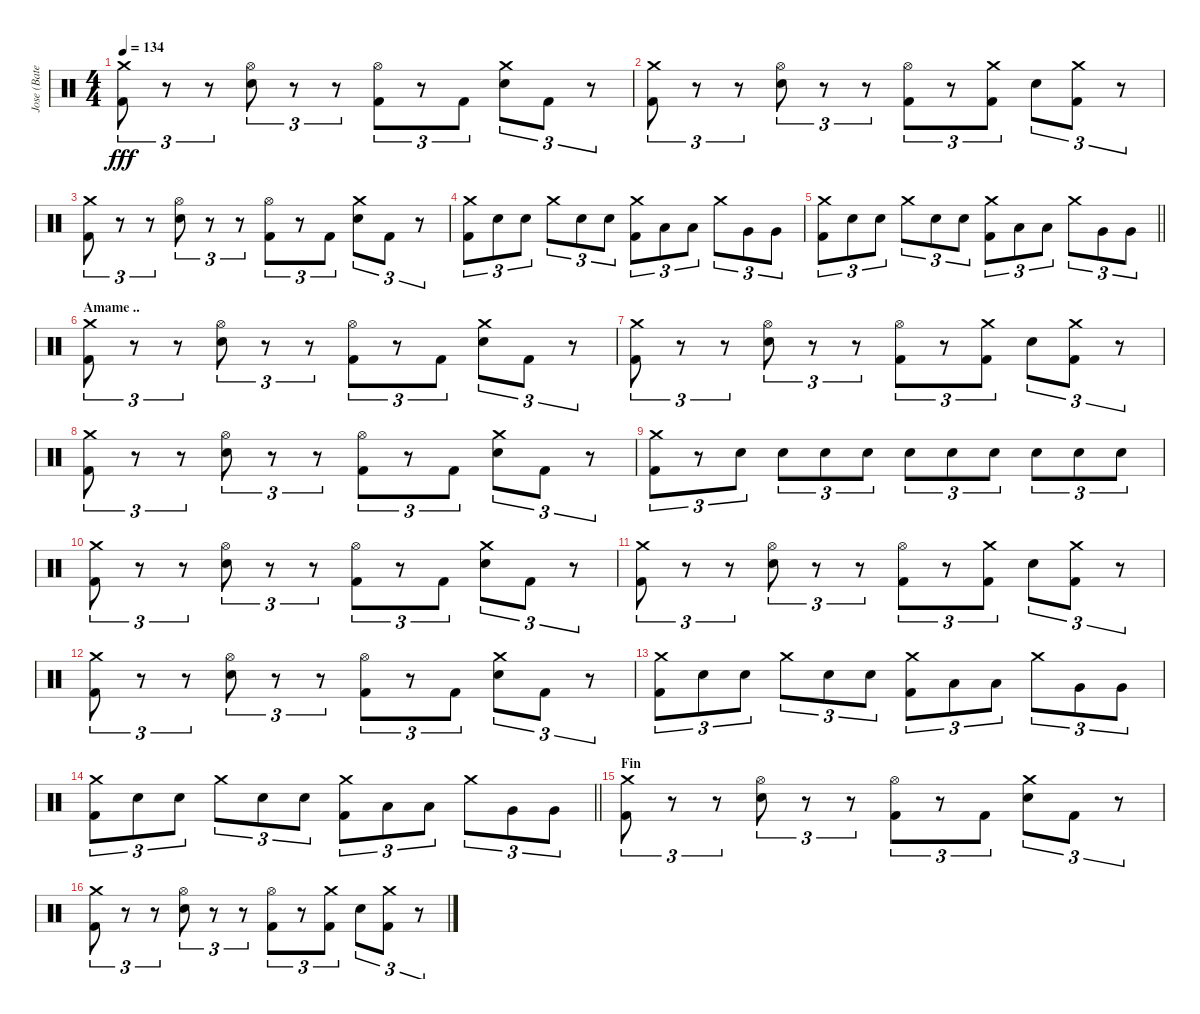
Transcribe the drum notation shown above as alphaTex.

\track ("Jose (Bateria)" "Jose (Bate") {instrument percussion}
\staff {score}
\articulation defaults
\ts (4 4)
\tempo 134
\clef neutral
\ks c
("Crash medium (hit)" "Kick (hit) 2").8{tu (3 2) dy fff} r.8{tu (3 2)} r.8{tu (3 2)} ("Hi-Hat (open)" "Snare (hit) 2").8{tu (3 2)} r.8{tu (3 2)} r.8{tu (3 2)} ("Hi-Hat (open)" "Kick (hit) 2").8{tu (3 2)} r.8{tu (3 2)} "Kick (hit) 2".8{tu (3 2)} ("Crash medium (hit)" "Snare (hit) 2").8{tu (3 2)} "Kick (hit) 2".8{tu (3 2)} r.8{tu (3 2)} |
("Crash medium (hit)" "Kick (hit) 2").8{tu (3 2)} r.8{tu (3 2)} r.8{tu (3 2)} ("Hi-Hat (open)" "Snare (hit) 2").8{tu (3 2)} r.8{tu (3 2)} r.8{tu (3 2)} ("Hi-Hat (open)" "Kick (hit) 2").8{tu (3 2)} r.8{tu (3 2)} ("Crash medium (hit)" "Kick (hit) 2").8{tu (3 2)} "Snare (hit) 2".8{tu (3 2)} ("Crash medium (hit)" "Kick (hit) 2").8{tu (3 2)} r.8{tu (3 2)} |
("Crash medium (hit)" "Kick (hit) 2").8{tu (3 2)} r.8{tu (3 2)} r.8{tu (3 2)} ("Hi-Hat (open)" "Snare (hit) 2").8{tu (3 2)} r.8{tu (3 2)} r.8{tu (3 2)} ("Hi-Hat (open)" "Kick (hit) 2").8{tu (3 2)} r.8{tu (3 2)} "Kick (hit) 2".8{tu (3 2)} ("Crash medium (hit)" "Snare (hit) 2").8{tu (3 2)} "Kick (hit) 2".8{tu (3 2)} r.8{tu (3 2)} |
("Crash medium (hit)" "Kick (hit) 2").8{tu (3 2)} "Snare (hit) 2".8{tu (3 2)} "Snare (hit) 2".8{tu (3 2)} "Crash medium (hit)".8{tu (3 2)} "Snare (hit) 2".8{tu (3 2)} "Snare (hit) 2".8{tu (3 2)} ("Crash medium (hit)" "Kick (hit) 2").8{tu (3 2)} "Low Tom (hit)".8{tu (3 2)} "Low Tom (hit)".8{tu (3 2)} "Crash medium (hit)".8{tu (3 2)} "Very Low Tom (hit)".8{tu (3 2)} "Very Low Tom (hit)".8{tu (3 2)} |
\barLineRight lightlight
("Crash medium (hit)" "Kick (hit) 2").8{tu (3 2)} "Snare (hit) 2".8{tu (3 2)} "Snare (hit) 2".8{tu (3 2)} "Crash medium (hit)".8{tu (3 2)} "Snare (hit) 2".8{tu (3 2)} "Snare (hit) 2".8{tu (3 2)} ("Crash medium (hit)" "Kick (hit) 2").8{tu (3 2)} "Low Tom (hit)".8{tu (3 2)} "Low Tom (hit)".8{tu (3 2)} "Crash medium (hit)".8{tu (3 2)} "Very Low Tom (hit)".8{tu (3 2)} "Very Low Tom (hit)".8{tu (3 2)} |
\section ("" "Amame ..")
("Crash medium (hit)" "Kick (hit) 2").8{tu (3 2)} r.8{tu (3 2)} r.8{tu (3 2)} ("Hi-Hat (open)" "Snare (hit) 2").8{tu (3 2)} r.8{tu (3 2)} r.8{tu (3 2)} ("Hi-Hat (open)" "Kick (hit) 2").8{tu (3 2)} r.8{tu (3 2)} "Kick (hit) 2".8{tu (3 2)} ("Crash medium (hit)" "Snare (hit) 2").8{tu (3 2)} "Kick (hit) 2".8{tu (3 2)} r.8{tu (3 2)} |
("Crash medium (hit)" "Kick (hit) 2").8{tu (3 2)} r.8{tu (3 2)} r.8{tu (3 2)} ("Hi-Hat (open)" "Snare (hit) 2").8{tu (3 2)} r.8{tu (3 2)} r.8{tu (3 2)} ("Hi-Hat (open)" "Kick (hit) 2").8{tu (3 2)} r.8{tu (3 2)} ("Crash medium (hit)" "Kick (hit) 2").8{tu (3 2)} "Snare (hit) 2".8{tu (3 2)} ("Crash medium (hit)" "Kick (hit) 2").8{tu (3 2)} r.8{tu (3 2)} |
("Crash medium (hit)" "Kick (hit) 2").8{tu (3 2)} r.8{tu (3 2)} r.8{tu (3 2)} ("Hi-Hat (open)" "Snare (hit) 2").8{tu (3 2)} r.8{tu (3 2)} r.8{tu (3 2)} ("Hi-Hat (open)" "Kick (hit) 2").8{tu (3 2)} r.8{tu (3 2)} "Kick (hit) 2".8{tu (3 2)} ("Crash medium (hit)" "Snare (hit) 2").8{tu (3 2)} "Kick (hit) 2".8{tu (3 2)} r.8{tu (3 2)} |
("Crash medium (hit)" "Kick (hit) 2").8{tu (3 2)} r.8{tu (3 2)} "Snare (hit) 2".8{tu (3 2)} "Snare (hit) 2".8{tu (3 2)} "Snare (hit) 2".8{tu (3 2)} "Snare (hit) 2".8{tu (3 2)} "Snare (hit) 2".8{tu (3 2)} "Snare (hit) 2".8{tu (3 2)} "Snare (hit) 2".8{tu (3 2)} "Snare (hit) 2".8{tu (3 2)} "Snare (hit) 2".8{tu (3 2)} "Snare (hit) 2".8{tu (3 2)} |
("Crash medium (hit)" "Kick (hit) 2").8{tu (3 2)} r.8{tu (3 2)} r.8{tu (3 2)} ("Hi-Hat (open)" "Snare (hit) 2").8{tu (3 2)} r.8{tu (3 2)} r.8{tu (3 2)} ("Hi-Hat (open)" "Kick (hit) 2").8{tu (3 2)} r.8{tu (3 2)} "Kick (hit) 2".8{tu (3 2)} ("Crash medium (hit)" "Snare (hit) 2").8{tu (3 2)} "Kick (hit) 2".8{tu (3 2)} r.8{tu (3 2)} |
("Crash medium (hit)" "Kick (hit) 2").8{tu (3 2)} r.8{tu (3 2)} r.8{tu (3 2)} ("Hi-Hat (open)" "Snare (hit) 2").8{tu (3 2)} r.8{tu (3 2)} r.8{tu (3 2)} ("Hi-Hat (open)" "Kick (hit) 2").8{tu (3 2)} r.8{tu (3 2)} ("Crash medium (hit)" "Kick (hit) 2").8{tu (3 2)} "Snare (hit) 2".8{tu (3 2)} ("Crash medium (hit)" "Kick (hit) 2").8{tu (3 2)} r.8{tu (3 2)} |
("Crash medium (hit)" "Kick (hit) 2").8{tu (3 2)} r.8{tu (3 2)} r.8{tu (3 2)} ("Hi-Hat (open)" "Snare (hit) 2").8{tu (3 2)} r.8{tu (3 2)} r.8{tu (3 2)} ("Hi-Hat (open)" "Kick (hit) 2").8{tu (3 2)} r.8{tu (3 2)} "Kick (hit) 2".8{tu (3 2)} ("Crash medium (hit)" "Snare (hit) 2").8{tu (3 2)} "Kick (hit) 2".8{tu (3 2)} r.8{tu (3 2)} |
("Crash medium (hit)" "Kick (hit) 2").8{tu (3 2)} "Snare (hit) 2".8{tu (3 2)} "Snare (hit) 2".8{tu (3 2)} "Crash medium (hit)".8{tu (3 2)} "Snare (hit) 2".8{tu (3 2)} "Snare (hit) 2".8{tu (3 2)} ("Crash medium (hit)" "Kick (hit) 2").8{tu (3 2)} "Low Tom (hit)".8{tu (3 2)} "Low Tom (hit)".8{tu (3 2)} "Crash medium (hit)".8{tu (3 2)} "Very Low Tom (hit)".8{tu (3 2)} "Very Low Tom (hit)".8{tu (3 2)} |
\barLineRight lightlight
("Crash medium (hit)" "Kick (hit) 2").8{tu (3 2)} "Snare (hit) 2".8{tu (3 2)} "Snare (hit) 2".8{tu (3 2)} "Crash medium (hit)".8{tu (3 2)} "Snare (hit) 2".8{tu (3 2)} "Snare (hit) 2".8{tu (3 2)} ("Crash medium (hit)" "Kick (hit) 2").8{tu (3 2)} "Low Tom (hit)".8{tu (3 2)} "Low Tom (hit)".8{tu (3 2)} "Crash medium (hit)".8{tu (3 2)} "Very Low Tom (hit)".8{tu (3 2)} "Very Low Tom (hit)".8{tu (3 2)} |
\section ("" "Fin")
("Crash medium (hit)" "Kick (hit) 2").8{tu (3 2)} r.8{tu (3 2)} r.8{tu (3 2)} ("Hi-Hat (open)" "Snare (hit) 2").8{tu (3 2)} r.8{tu (3 2)} r.8{tu (3 2)} ("Hi-Hat (open)" "Kick (hit) 2").8{tu (3 2)} r.8{tu (3 2)} "Kick (hit) 2".8{tu (3 2)} ("Crash medium (hit)" "Snare (hit) 2").8{tu (3 2)} "Kick (hit) 2".8{tu (3 2)} r.8{tu (3 2)} |
("Crash medium (hit)" "Kick (hit) 2").8{tu (3 2)} r.8{tu (3 2)} r.8{tu (3 2)} ("Hi-Hat (open)" "Snare (hit) 2").8{tu (3 2)} r.8{tu (3 2)} r.8{tu (3 2)} ("Hi-Hat (open)" "Kick (hit) 2").8{tu (3 2)} r.8{tu (3 2)} ("Crash medium (hit)" "Kick (hit) 2").8{tu (3 2)} "Snare (hit) 2".8{tu (3 2)} ("Crash medium (hit)" "Kick (hit) 2").8{tu (3 2)} r.8{tu (3 2)}
